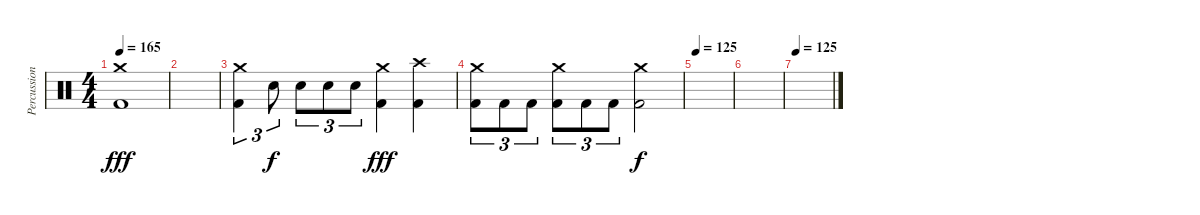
\track ("Percussion" "Percussion") {instrument percussion}
\staff {score}
\articulation defaults
\ts (4 4)
\tempo 165
\clef neutral
\ks c
("Crash medium (hit)" "Kick (hit) 2").1{dy fff} |
|
("Crash medium (hit)" "Kick (hit) 2").4{tu (3 2)} "Electric Snare (hit)".8{tu (3 2) dy f} "Electric Snare (hit)".8{tu (3 2)} "Electric Snare (hit)".8{tu (3 2)} "Electric Snare (hit)".8{tu (3 2)} ("Crash medium (hit)" "Kick (hit) 2").4{dy fff} ("Crash high (hit)" "Kick (hit) 2").4 |
("Crash medium (hit)" "Kick (hit) 2").8{tu (3 2)} "Kick (hit) 2".8{tu (3 2)} "Kick (hit) 2".8{tu (3 2)} ("Crash medium (hit)" "Kick (hit) 2").8{tu (3 2)} "Kick (hit) 2".8{tu (3 2)} "Kick (hit) 2".8{tu (3 2)} ("Crash medium (hit)" "Kick (hit) 2").2{dy f} |
\tempo 125
|
|
\tempo 125
